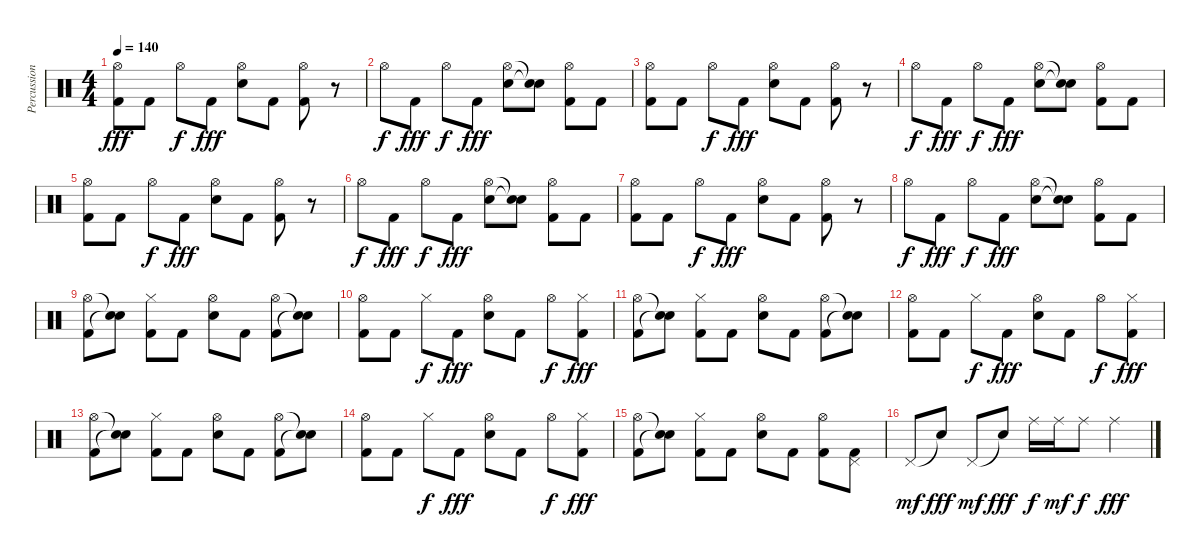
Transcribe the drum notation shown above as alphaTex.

\track ("Percussion" "Percussion") {instrument percussion}
\staff {score}
\articulation defaults
\ts (4 4)
\tempo 140
\clef neutral
\ks c
("Hi-Hat (open)" "Kick (hit) 2").8{dy fff} "Kick (hit) 2".8 "Hi-Hat (open)".8{dy f} "Kick (hit) 2".8{dy fff} ("Hi-Hat (open)" "Electric Snare (hit)").8 "Kick (hit) 2".8 ("Hi-Hat (open)" "Kick (hit) 2").8 r.8 |
"Hi-Hat (open)".8{dy f} "Kick (hit) 2".8{dy fff} "Hi-Hat (open)".8{dy f} "Kick (hit) 2".8{dy fff} ("Hi-Hat (open)" "Electric Snare (hit)").8 ("Snare (hit)"{t} "Snare (hit)"{t}).8 ("Hi-Hat (open)" "Kick (hit) 2").8 "Kick (hit) 2".8 |
("Hi-Hat (open)" "Kick (hit) 2").8 "Kick (hit) 2".8 "Hi-Hat (open)".8{dy f} "Kick (hit) 2".8{dy fff} ("Hi-Hat (open)" "Electric Snare (hit)").8 "Kick (hit) 2".8 ("Hi-Hat (open)" "Kick (hit) 2").8 r.8 |
"Hi-Hat (open)".8{dy f} "Kick (hit) 2".8{dy fff} "Hi-Hat (open)".8{dy f} "Kick (hit) 2".8{dy fff} ("Hi-Hat (open)" "Electric Snare (hit)").8 ("Snare (hit)"{t} "Snare (hit)"{t}).8 ("Hi-Hat (open)" "Kick (hit) 2").8 "Kick (hit) 2".8 |
("Hi-Hat (open)" "Kick (hit) 2").8 "Kick (hit) 2".8 "Hi-Hat (open)".8{dy f} "Kick (hit) 2".8{dy fff} ("Hi-Hat (open)" "Electric Snare (hit)").8 "Kick (hit) 2".8 ("Hi-Hat (open)" "Kick (hit) 2").8 r.8 |
"Hi-Hat (open)".8{dy f} "Kick (hit) 2".8{dy fff} "Hi-Hat (open)".8{dy f} "Kick (hit) 2".8{dy fff} ("Hi-Hat (open)" "Electric Snare (hit)").8 ("Snare (hit)"{t} "Snare (hit)"{t}).8 ("Hi-Hat (open)" "Kick (hit) 2").8 "Kick (hit) 2".8 |
("Hi-Hat (open)" "Kick (hit) 2").8 "Kick (hit) 2".8 "Hi-Hat (open)".8{dy f} "Kick (hit) 2".8{dy fff} ("Hi-Hat (open)" "Electric Snare (hit)").8 "Kick (hit) 2".8 ("Hi-Hat (open)" "Kick (hit) 2").8 r.8 |
"Hi-Hat (open)".8{dy f} "Kick (hit) 2".8{dy fff} "Hi-Hat (open)".8{dy f} "Kick (hit) 2".8{dy fff} ("Hi-Hat (open)" "Electric Snare (hit)").8 ("Snare (hit)"{t} "Snare (hit)"{t}).8 ("Hi-Hat (open)" "Kick (hit) 2").8 "Kick (hit) 2".8 |
("Hi-Hat (open)" "Kick (hit) 2").8 ("Snare (hit)"{t} "Snare (hit)"{t}).8 ("Hi-Hat (closed)" "Kick (hit) 2").8 "Kick (hit) 2".8 ("Hi-Hat (open)" "Electric Snare (hit)").8 "Kick (hit) 2".8 ("Hi-Hat (open)" "Kick (hit) 2").8 ("Snare (hit)"{t} "Snare (hit)"{t}).8 |
("Hi-Hat (open)" "Kick (hit) 2").8 "Kick (hit) 2".8 "Hi-Hat (closed)".8{dy f} "Kick (hit) 2".8{dy fff} ("Hi-Hat (open)" "Electric Snare (hit)").8 "Kick (hit) 2".8 "Hi-Hat (open)".8{dy f} ("Hi-Hat (closed)" "Kick (hit) 2").8{dy fff} |
("Hi-Hat (open)" "Kick (hit) 2").8 ("Snare (hit)"{t} "Snare (hit)"{t}).8 ("Hi-Hat (closed)" "Kick (hit) 2").8 "Kick (hit) 2".8 ("Hi-Hat (open)" "Electric Snare (hit)").8 "Kick (hit) 2".8 ("Hi-Hat (open)" "Kick (hit) 2").8 ("Snare (hit)"{t} "Snare (hit)"{t}).8 |
("Hi-Hat (open)" "Kick (hit) 2").8 "Kick (hit) 2".8 "Hi-Hat (closed)".8{dy f} "Kick (hit) 2".8{dy fff} ("Hi-Hat (open)" "Electric Snare (hit)").8 "Kick (hit) 2".8 "Hi-Hat (open)".8{dy f} ("Hi-Hat (closed)" "Kick (hit) 2").8{dy fff} |
("Hi-Hat (open)" "Kick (hit) 2").8 ("Snare (hit)"{t} "Snare (hit)"{t}).8 ("Hi-Hat (closed)" "Kick (hit) 2").8 "Kick (hit) 2".8 ("Hi-Hat (open)" "Electric Snare (hit)").8 "Kick (hit) 2".8 ("Hi-Hat (open)" "Kick (hit) 2").8 ("Snare (hit)"{t} "Snare (hit)"{t}).8 |
("Hi-Hat (open)" "Kick (hit) 2").8 "Kick (hit) 2".8 "Hi-Hat (closed)".8{dy f} "Kick (hit) 2".8{dy fff} ("Hi-Hat (open)" "Electric Snare (hit)").8 "Kick (hit) 2".8 "Hi-Hat (open)".8{dy f} ("Hi-Hat (closed)" "Kick (hit) 2").8{dy fff} |
("Hi-Hat (open)" "Kick (hit) 2").8 ("Snare (hit)"{t} "Snare (hit)"{t}).8 ("Hi-Hat (closed)" "Kick (hit) 2").8 "Kick (hit) 2".8 ("Hi-Hat (open)" "Electric Snare (hit)").8 "Kick (hit) 2".8 ("Hi-Hat (open)" "Kick (hit) 2").8 ("Pedal Hi-Hat (hit)" "Kick (hit) 2").8 |
"Pedal Hi-Hat (hit)".8{dy mf} "Snare (hit)"{t}.8{dy fff} "Pedal Hi-Hat (hit)".8{dy mf} "Snare (hit)"{t}.8{dy fff} "Ride (middle)".16{dy f} "Ride (middle)".16{dy mf} "Ride (middle)".8{dy f} "Ride (middle)".4{dy fff}
